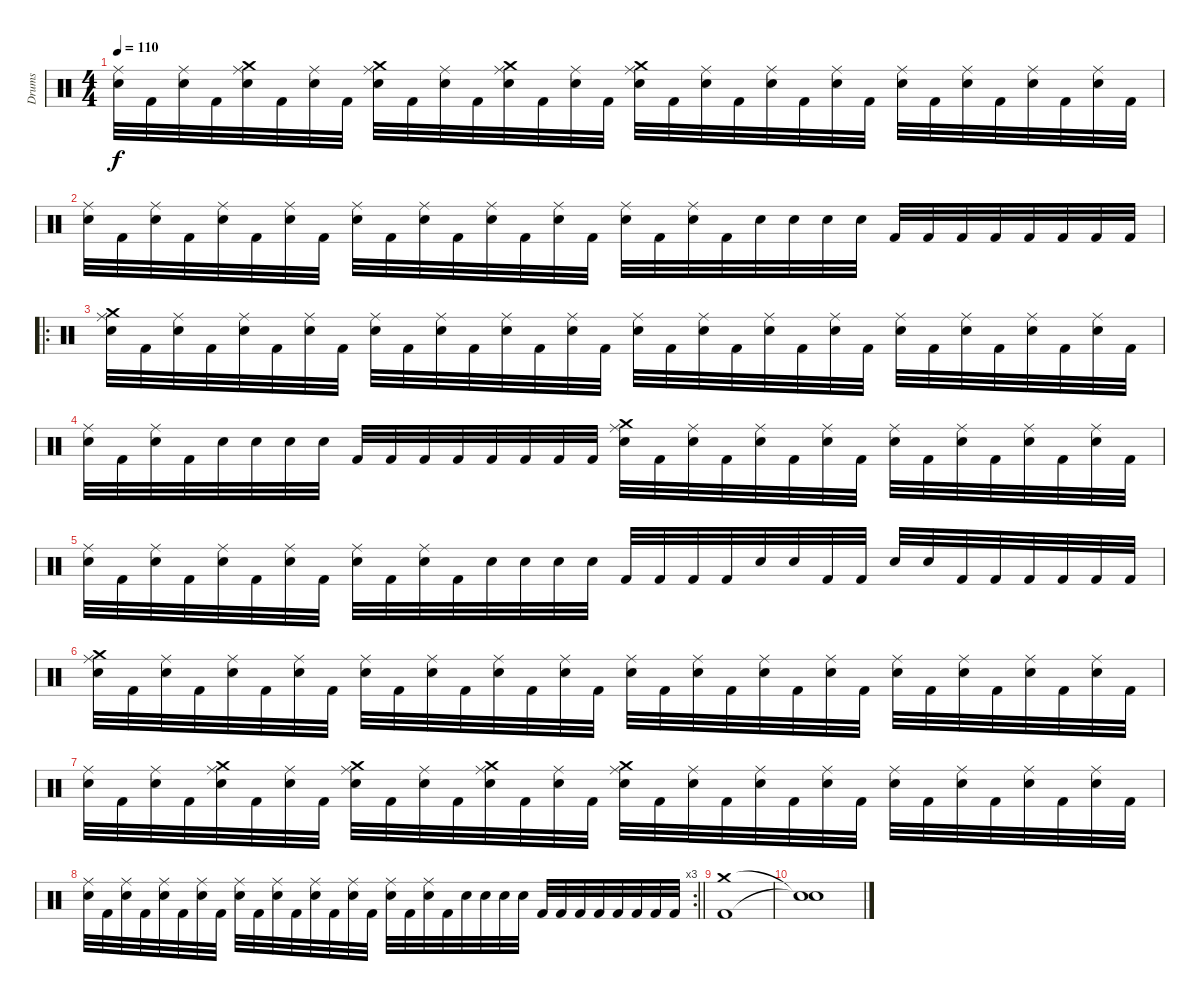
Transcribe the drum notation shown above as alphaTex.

\track ("Drums" "Drums") {instrument percussion}
\staff {score}
\articulation defaults
\ts (4 4)
\tempo 110
\clef neutral
\ks c
("Ride (middle)" "Electric Snare (hit)").32{dy f} "Kick (hit) 2".32 ("Ride (middle)" "Electric Snare (hit)").32 "Kick (hit) 2".32 ("Crash medium (hit)" "Ride (middle)" "Electric Snare (hit)").32 "Kick (hit) 2".32 ("Ride (middle)" "Electric Snare (hit)").32 "Kick (hit) 2".32 ("Crash medium (hit)" "Ride (middle)" "Electric Snare (hit)").32 "Kick (hit) 2".32 ("Ride (middle)" "Electric Snare (hit)").32 "Kick (hit) 2".32 ("Crash medium (hit)" "Ride (middle)" "Electric Snare (hit)").32 "Kick (hit) 2".32 ("Ride (middle)" "Electric Snare (hit)").32 "Kick (hit) 2".32 ("Crash medium (hit)" "Ride (middle)" "Electric Snare (hit)").32 "Kick (hit) 2".32 ("Ride (middle)" "Electric Snare (hit)").32 "Kick (hit) 2".32 ("Ride (middle)" "Electric Snare (hit)").32 "Kick (hit) 2".32 ("Ride (middle)" "Electric Snare (hit)").32 "Kick (hit) 2".32 ("Ride (middle)" "Electric Snare (hit)").32 "Kick (hit) 2".32 ("Ride (middle)" "Electric Snare (hit)").32 "Kick (hit) 2".32 ("Ride (middle)" "Electric Snare (hit)").32 "Kick (hit) 2".32 ("Ride (middle)" "Electric Snare (hit)").32 "Kick (hit) 2".32 |
("Ride (middle)" "Electric Snare (hit)").32 "Kick (hit) 2".32 ("Ride (middle)" "Electric Snare (hit)").32 "Kick (hit) 2".32 ("Ride (middle)" "Electric Snare (hit)").32 "Kick (hit) 2".32 ("Ride (middle)" "Electric Snare (hit)").32 "Kick (hit) 2".32 ("Ride (middle)" "Electric Snare (hit)").32 "Kick (hit) 2".32 ("Ride (middle)" "Electric Snare (hit)").32 "Kick (hit) 2".32 ("Ride (middle)" "Electric Snare (hit)").32 "Kick (hit) 2".32 ("Ride (middle)" "Electric Snare (hit)").32 "Kick (hit) 2".32 ("Ride (middle)" "Electric Snare (hit)").32 "Kick (hit) 2".32 ("Ride (middle)" "Electric Snare (hit)").32 "Kick (hit) 2".32 "Electric Snare (hit)".32 "Electric Snare (hit)".32 "Electric Snare (hit)".32 "Electric Snare (hit)".32 "Kick (hit) 2".32 "Kick (hit) 2".32 "Kick (hit) 2".32 "Kick (hit) 2".32 "Kick (hit) 2".32 "Kick (hit) 2".32 "Kick (hit) 2".32 "Kick (hit) 2".32 |
\ro
("Crash medium (hit)" "Ride (middle)" "Electric Snare (hit)").32 "Kick (hit) 2".32 ("Ride (middle)" "Electric Snare (hit)").32 "Kick (hit) 2".32 ("Ride (middle)" "Electric Snare (hit)").32 "Kick (hit) 2".32 ("Ride (middle)" "Electric Snare (hit)").32 "Kick (hit) 2".32 ("Ride (middle)" "Electric Snare (hit)").32 "Kick (hit) 2".32 ("Ride (middle)" "Electric Snare (hit)").32 "Kick (hit) 2".32 ("Ride (middle)" "Electric Snare (hit)").32 "Kick (hit) 2".32 ("Ride (middle)" "Electric Snare (hit)").32 "Kick (hit) 2".32 ("Ride (middle)" "Electric Snare (hit)").32 "Kick (hit) 2".32 ("Ride (middle)" "Electric Snare (hit)").32 "Kick (hit) 2".32 ("Ride (middle)" "Electric Snare (hit)").32 "Kick (hit) 2".32 ("Ride (middle)" "Electric Snare (hit)").32 "Kick (hit) 2".32 ("Ride (middle)" "Electric Snare (hit)").32 "Kick (hit) 2".32 ("Ride (middle)" "Electric Snare (hit)").32 "Kick (hit) 2".32 ("Ride (middle)" "Electric Snare (hit)").32 "Kick (hit) 2".32 ("Ride (middle)" "Electric Snare (hit)").32 "Kick (hit) 2".32 |
("Ride (middle)" "Electric Snare (hit)").32 "Kick (hit) 2".32 ("Ride (middle)" "Electric Snare (hit)").32 "Kick (hit) 2".32 "Electric Snare (hit)".32 "Electric Snare (hit)".32 "Electric Snare (hit)".32 "Electric Snare (hit)".32 "Kick (hit) 2".32 "Kick (hit) 2".32 "Kick (hit) 2".32 "Kick (hit) 2".32 "Kick (hit) 2".32 "Kick (hit) 2".32 "Kick (hit) 2".32 "Kick (hit) 2".32 ("Crash medium (hit)" "Ride (middle)" "Electric Snare (hit)").32 "Kick (hit) 2".32 ("Ride (middle)" "Electric Snare (hit)").32 "Kick (hit) 2".32 ("Ride (middle)" "Electric Snare (hit)").32 "Kick (hit) 2".32 ("Ride (middle)" "Electric Snare (hit)").32 "Kick (hit) 2".32 ("Ride (middle)" "Electric Snare (hit)").32 "Kick (hit) 2".32 ("Ride (middle)" "Electric Snare (hit)").32 "Kick (hit) 2".32 ("Ride (middle)" "Electric Snare (hit)").32 "Kick (hit) 2".32 ("Ride (middle)" "Electric Snare (hit)").32 "Kick (hit) 2".32 |
("Ride (middle)" "Electric Snare (hit)").32 "Kick (hit) 2".32 ("Ride (middle)" "Electric Snare (hit)").32 "Kick (hit) 2".32 ("Ride (middle)" "Electric Snare (hit)").32 "Kick (hit) 2".32 ("Ride (middle)" "Electric Snare (hit)").32 "Kick (hit) 2".32 ("Ride (middle)" "Electric Snare (hit)").32 "Kick (hit) 2".32 ("Ride (middle)" "Electric Snare (hit)").32 "Kick (hit) 2".32 "Electric Snare (hit)".32 "Electric Snare (hit)".32 "Electric Snare (hit)".32 "Electric Snare (hit)".32 "Kick (hit) 2".32 "Kick (hit) 2".32 "Kick (hit) 2".32 "Kick (hit) 2".32 "Electric Snare (hit)".32 "Electric Snare (hit)".32 "Kick (hit) 2".32 "Kick (hit) 2".32 "Electric Snare (hit)".32 "Electric Snare (hit)".32 "Kick (hit) 2".32 "Kick (hit) 2".32 "Kick (hit) 2".32 "Kick (hit) 2".32 "Kick (hit) 2".32 "Kick (hit) 2".32 |
("Crash medium (hit)" "Ride (middle)" "Electric Snare (hit)").32 "Kick (hit) 2".32 ("Ride (middle)" "Electric Snare (hit)").32 "Kick (hit) 2".32 ("Ride (middle)" "Electric Snare (hit)").32 "Kick (hit) 2".32 ("Ride (middle)" "Electric Snare (hit)").32 "Kick (hit) 2".32 ("Ride (middle)" "Electric Snare (hit)").32 "Kick (hit) 2".32 ("Ride (middle)" "Electric Snare (hit)").32 "Kick (hit) 2".32 ("Ride (middle)" "Electric Snare (hit)").32 "Kick (hit) 2".32 ("Ride (middle)" "Electric Snare (hit)").32 "Kick (hit) 2".32 ("Ride (middle)" "Electric Snare (hit)").32 "Kick (hit) 2".32 ("Ride (middle)" "Electric Snare (hit)").32 "Kick (hit) 2".32 ("Ride (middle)" "Electric Snare (hit)").32 "Kick (hit) 2".32 ("Ride (middle)" "Electric Snare (hit)").32 "Kick (hit) 2".32 ("Ride (middle)" "Electric Snare (hit)").32 "Kick (hit) 2".32 ("Ride (middle)" "Electric Snare (hit)").32 "Kick (hit) 2".32 ("Ride (middle)" "Electric Snare (hit)").32 "Kick (hit) 2".32 ("Ride (middle)" "Electric Snare (hit)").32 "Kick (hit) 2".32 |
("Ride (middle)" "Electric Snare (hit)").32 "Kick (hit) 2".32 ("Ride (middle)" "Electric Snare (hit)").32 "Kick (hit) 2".32 ("Crash medium (hit)" "Ride (middle)" "Electric Snare (hit)").32 "Kick (hit) 2".32 ("Ride (middle)" "Electric Snare (hit)").32 "Kick (hit) 2".32 ("Crash medium (hit)" "Ride (middle)" "Electric Snare (hit)").32 "Kick (hit) 2".32 ("Ride (middle)" "Electric Snare (hit)").32 "Kick (hit) 2".32 ("Crash medium (hit)" "Ride (middle)" "Electric Snare (hit)").32 "Kick (hit) 2".32 ("Ride (middle)" "Electric Snare (hit)").32 "Kick (hit) 2".32 ("Crash medium (hit)" "Ride (middle)" "Electric Snare (hit)").32 "Kick (hit) 2".32 ("Ride (middle)" "Electric Snare (hit)").32 "Kick (hit) 2".32 ("Ride (middle)" "Electric Snare (hit)").32 "Kick (hit) 2".32 ("Ride (middle)" "Electric Snare (hit)").32 "Kick (hit) 2".32 ("Ride (middle)" "Electric Snare (hit)").32 "Kick (hit) 2".32 ("Ride (middle)" "Electric Snare (hit)").32 "Kick (hit) 2".32 ("Ride (middle)" "Electric Snare (hit)").32 "Kick (hit) 2".32 ("Ride (middle)" "Electric Snare (hit)").32 "Kick (hit) 2".32 |
\rc 3
\barLineRight lightlight
("Ride (middle)" "Electric Snare (hit)").32 "Kick (hit) 2".32 ("Ride (middle)" "Electric Snare (hit)").32 "Kick (hit) 2".32 ("Ride (middle)" "Electric Snare (hit)").32 "Kick (hit) 2".32 ("Ride (middle)" "Electric Snare (hit)").32 "Kick (hit) 2".32 ("Ride (middle)" "Electric Snare (hit)").32 "Kick (hit) 2".32 ("Ride (middle)" "Electric Snare (hit)").32 "Kick (hit) 2".32 ("Ride (middle)" "Electric Snare (hit)").32 "Kick (hit) 2".32 ("Ride (middle)" "Electric Snare (hit)").32 "Kick (hit) 2".32 ("Ride (middle)" "Electric Snare (hit)").32 "Kick (hit) 2".32 ("Ride (middle)" "Electric Snare (hit)").32 "Kick (hit) 2".32 "Electric Snare (hit)".32 "Electric Snare (hit)".32 "Electric Snare (hit)".32 "Electric Snare (hit)".32 "Kick (hit) 2".32 "Kick (hit) 2".32 "Kick (hit) 2".32 "Kick (hit) 2".32 "Kick (hit) 2".32 "Kick (hit) 2".32 "Kick (hit) 2".32 "Kick (hit) 2".32 |
("Crash medium (hit)" "Kick (hit) 2").1 |
("Snare (hit)"{t} "Snare (hit)"{t}).1
